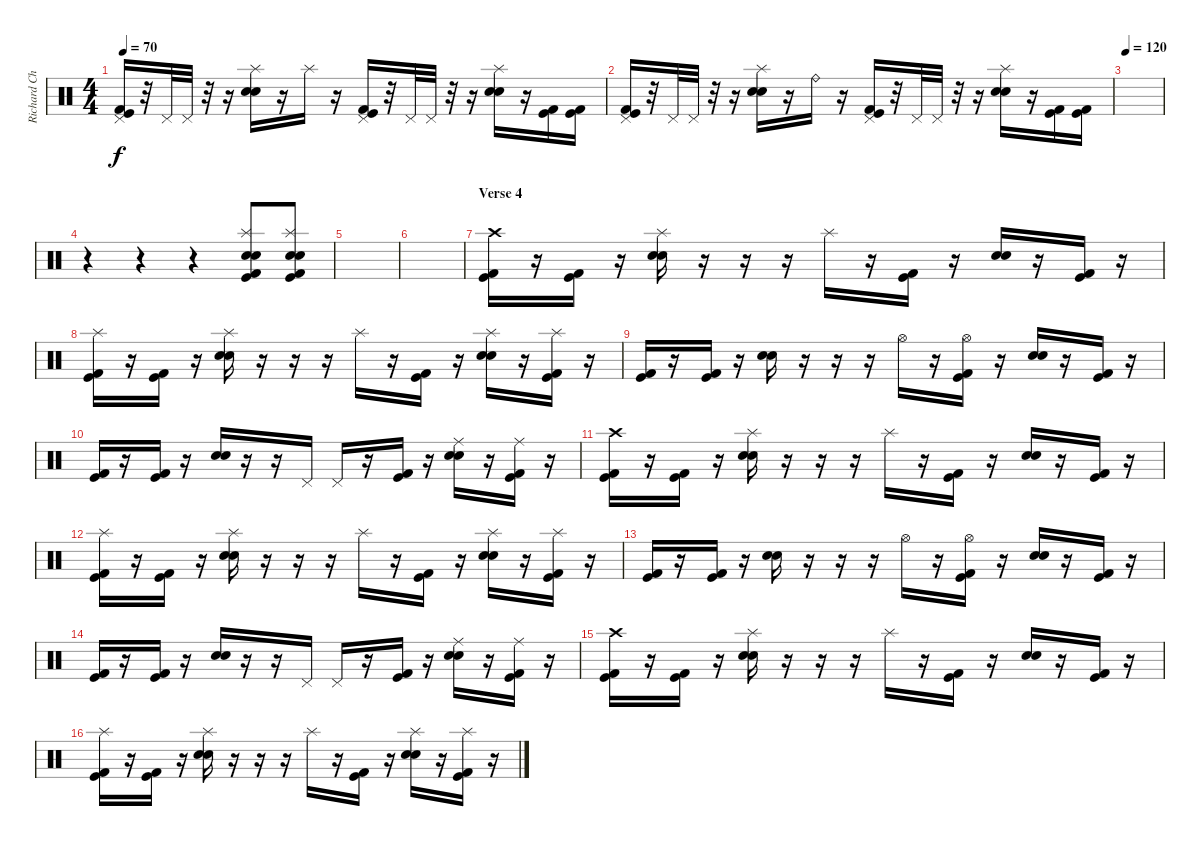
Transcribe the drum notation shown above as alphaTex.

\track ("Richard Christy" "Richard Ch") {instrument percussion}
\staff {score}
\articulation defaults
\ts (4 4)
\tempo 70
\clef neutral
\ks c
("Pedal Hi-Hat (hit)" "Kick (hit) 2" "Kick (hit)").16{dy f} r.32 "Pedal Hi-Hat (hit)".32 "Pedal Hi-Hat (hit)".32 r.32 r.16 ("Splash (hit)" "Snare (hit) 2" "Electric Snare (hit)").16 r.16 "Splash (hit)".16 r.16 ("Pedal Hi-Hat (hit)" "Kick (hit)" "Kick (hit) 2").16 r.32 "Pedal Hi-Hat (hit)".32 "Pedal Hi-Hat (hit)".32 r.32 r.16 ("Splash (hit)" "Snare (hit) 2" "Electric Snare (hit)").16 r.16 ("Kick (hit)" "Kick (hit) 2").16 ("Kick (hit)" "Kick (hit) 2").16 |
("Pedal Hi-Hat (hit)" "Kick (hit) 2" "Kick (hit)").16 r.32 "Pedal Hi-Hat (hit)".32 "Pedal Hi-Hat (hit)".32 r.32 r.16 ("Splash (hit)" "Snare (hit) 2" "Electric Snare (hit)").16 r.16 "Ride (bell)".16 r.16 ("Pedal Hi-Hat (hit)" "Kick (hit)" "Kick (hit) 2").16 r.32 "Pedal Hi-Hat (hit)".32 "Pedal Hi-Hat (hit)".32 r.32 r.16 ("Splash (hit)" "Snare (hit) 2" "Electric Snare (hit)").16 r.16 ("Kick (hit)" "Kick (hit) 2").16 ("Kick (hit)" "Kick (hit) 2").16 |
\tempo 120
|
r.4 r.4 r.4 ("Splash (hit)" "Electric Snare (hit)" "Snare (hit) 2" "Kick (hit) 2" "Kick (hit)").8 ("Splash (hit)" "Electric Snare (hit)" "Snare (hit) 2" "Kick (hit) 2" "Kick (hit)").8 |
|
|
\section ("" "Verse 4")
("Crash high (hit)" "Kick (hit)" "Kick (hit) 2").16 r.16 ("Kick (hit)" "Kick (hit) 2").16 r.16 ("Splash (hit)" "Electric Snare (hit)" "Snare (hit) 2").16 r.16 r.16 r.16 "Splash (hit)".16 r.16 ("Kick (hit)" "Kick (hit) 2").16 r.16 ("Electric Snare (hit)" "Snare (hit) 2").16 r.16 ("Kick (hit)" "Kick (hit) 2").16 r.16 |
("Splash (hit)" "Kick (hit)" "Kick (hit) 2").16 r.16 ("Kick (hit)" "Kick (hit) 2").16 r.16 ("Splash (hit)" "Electric Snare (hit)" "Snare (hit) 2").16 r.16 r.16 r.16 "Splash (hit)".16 r.16 ("Kick (hit)" "Kick (hit) 2").16 r.16 ("Splash (hit)" "Electric Snare (hit)" "Snare (hit) 2").16 r.16 ("Splash (hit)" "Kick (hit)" "Kick (hit) 2").16 r.16 |
("Kick (hit)" "Kick (hit) 2").16 r.16 ("Kick (hit)" "Kick (hit) 2").16 r.16 ("Electric Snare (hit)" "Snare (hit) 2").16 r.16 r.16 r.16 "Hi-Hat (open)".16 r.16 ("Hi-Hat (open)" "Kick (hit)" "Kick (hit) 2").16 r.16 ("Electric Snare (hit)" "Snare (hit) 2").16 r.16 ("Kick (hit)" "Kick (hit) 2").16 r.16 |
("Kick (hit)" "Kick (hit) 2").16 r.16 ("Kick (hit)" "Kick (hit) 2").16 r.16 ("Electric Snare (hit)" "Snare (hit) 2").16 r.16 r.16 "Pedal Hi-Hat (hit)".16 "Pedal Hi-Hat (hit)".16 r.16 ("Kick (hit)" "Kick (hit) 2").16 r.16 ("Ride (middle)" "Electric Snare (hit)" "Snare (hit) 2").16 r.16 ("Ride (middle)" "Kick (hit)" "Kick (hit) 2").16 r.16 |
("Crash high (hit)" "Kick (hit)" "Kick (hit) 2").16 r.16 ("Kick (hit)" "Kick (hit) 2").16 r.16 ("Splash (hit)" "Electric Snare (hit)" "Snare (hit) 2").16 r.16 r.16 r.16 "Splash (hit)".16 r.16 ("Kick (hit)" "Kick (hit) 2").16 r.16 ("Electric Snare (hit)" "Snare (hit) 2").16 r.16 ("Kick (hit)" "Kick (hit) 2").16 r.16 |
("Splash (hit)" "Kick (hit)" "Kick (hit) 2").16 r.16 ("Kick (hit)" "Kick (hit) 2").16 r.16 ("Splash (hit)" "Electric Snare (hit)" "Snare (hit) 2").16 r.16 r.16 r.16 "Splash (hit)".16 r.16 ("Kick (hit)" "Kick (hit) 2").16 r.16 ("Splash (hit)" "Electric Snare (hit)" "Snare (hit) 2").16 r.16 ("Splash (hit)" "Kick (hit)" "Kick (hit) 2").16 r.16 |
("Kick (hit)" "Kick (hit) 2").16 r.16 ("Kick (hit)" "Kick (hit) 2").16 r.16 ("Electric Snare (hit)" "Snare (hit) 2").16 r.16 r.16 r.16 "Hi-Hat (open)".16 r.16 ("Hi-Hat (open)" "Kick (hit)" "Kick (hit) 2").16 r.16 ("Electric Snare (hit)" "Snare (hit) 2").16 r.16 ("Kick (hit)" "Kick (hit) 2").16 r.16 |
("Kick (hit)" "Kick (hit) 2").16 r.16 ("Kick (hit)" "Kick (hit) 2").16 r.16 ("Electric Snare (hit)" "Snare (hit) 2").16 r.16 r.16 "Pedal Hi-Hat (hit)".16 "Pedal Hi-Hat (hit)".16 r.16 ("Kick (hit)" "Kick (hit) 2").16 r.16 ("Ride (middle)" "Electric Snare (hit)" "Snare (hit) 2").16 r.16 ("Ride (middle)" "Kick (hit)" "Kick (hit) 2").16 r.16 |
("Crash high (hit)" "Kick (hit)" "Kick (hit) 2").16 r.16 ("Kick (hit)" "Kick (hit) 2").16 r.16 ("Splash (hit)" "Electric Snare (hit)" "Snare (hit) 2").16 r.16 r.16 r.16 "Splash (hit)".16 r.16 ("Kick (hit)" "Kick (hit) 2").16 r.16 ("Electric Snare (hit)" "Snare (hit) 2").16 r.16 ("Kick (hit)" "Kick (hit) 2").16 r.16 |
("Splash (hit)" "Kick (hit)" "Kick (hit) 2").16 r.16 ("Kick (hit)" "Kick (hit) 2").16 r.16 ("Splash (hit)" "Electric Snare (hit)" "Snare (hit) 2").16 r.16 r.16 r.16 "Splash (hit)".16 r.16 ("Kick (hit)" "Kick (hit) 2").16 r.16 ("Splash (hit)" "Electric Snare (hit)" "Snare (hit) 2").16 r.16 ("Splash (hit)" "Kick (hit)" "Kick (hit) 2").16 r.16
